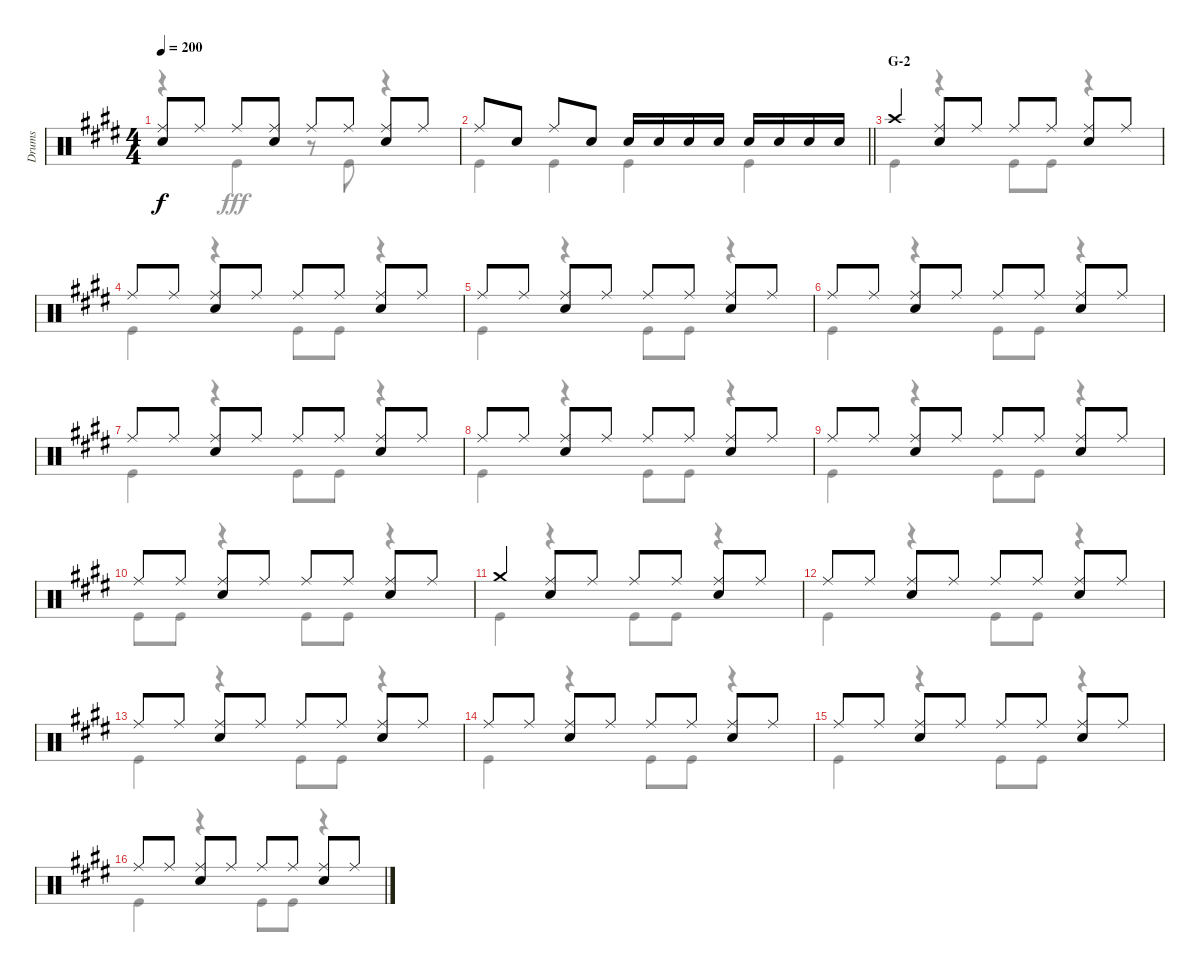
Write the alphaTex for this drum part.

\track ("Drums" "Drums") {instrument percussion}
\staff {score}
\articulation defaults
\voice
\ts (4 4)
\tempo 200
\clef neutral
\ks e
("Ride (middle)" "Snare (hit) 2").8{dy f} "Ride (middle)".8 "Ride (middle)".8 ("Ride (middle)" "Snare (hit) 2").8 "Ride (middle)".8 "Ride (middle)".8 ("Ride (middle)" "Snare (hit) 2").8 "Ride (middle)".8 |
\barLineRight lightlight "Ride (middle)".8 "Snare (hit) 2".8 "Ride (middle)".8 "Snare (hit) 2".8 "Snare (hit) 2".16 "Snare (hit) 2".16 "Snare (hit) 2".16 "Snare (hit) 2".16 "Snare (hit) 2".16 "Snare (hit) 2".16 "Snare (hit) 2".16 "Snare (hit) 2".16
|
\section ("" "G-2")
"Crash high (hit)".4 ("Ride (middle)" "Snare (hit) 2").8 "Ride (middle)".8 "Ride (middle)".8 "Ride (middle)".8 ("Ride (middle)" "Snare (hit) 2").8 "Ride (middle)".8 |
"Ride (middle)".8 "Ride (middle)".8 ("Ride (middle)" "Snare (hit) 2").8 "Ride (middle)".8 "Ride (middle)".8 "Ride (middle)".8 ("Ride (middle)" "Snare (hit) 2").8 "Ride (middle)".8 |
"Ride (middle)".8 "Ride (middle)".8 ("Ride (middle)" "Snare (hit) 2").8 "Ride (middle)".8 "Ride (middle)".8 "Ride (middle)".8 ("Ride (middle)" "Snare (hit) 2").8 "Ride (middle)".8 |
"Ride (middle)".8 "Ride (middle)".8 ("Ride (middle)" "Snare (hit) 2").8 "Ride (middle)".8 "Ride (middle)".8 "Ride (middle)".8 ("Ride (middle)" "Snare (hit) 2").8 "Ride (middle)".8 |
"Ride (middle)".8 "Ride (middle)".8 ("Ride (middle)" "Snare (hit) 2").8 "Ride (middle)".8 "Ride (middle)".8 "Ride (middle)".8 ("Ride (middle)" "Snare (hit) 2").8 "Ride (middle)".8 |
"Ride (middle)".8 "Ride (middle)".8 ("Ride (middle)" "Snare (hit) 2").8 "Ride (middle)".8 "Ride (middle)".8 "Ride (middle)".8 ("Ride (middle)" "Snare (hit) 2").8 "Ride (middle)".8 |
"Ride (middle)".8 "Ride (middle)".8 ("Ride (middle)" "Snare (hit) 2").8 "Ride (middle)".8 "Ride (middle)".8 "Ride (middle)".8 ("Ride (middle)" "Snare (hit) 2").8 "Ride (middle)".8 |
"Ride (middle)".8 "Ride (middle)".8 ("Ride (middle)" "Snare (hit) 2").8 "Ride (middle)".8 "Ride (middle)".8 "Ride (middle)".8 ("Ride (middle)" "Snare (hit) 2").8 "Ride (middle)".8 |
"Crash medium (hit)".4 ("Ride (middle)" "Snare (hit) 2").8 "Ride (middle)".8 "Ride (middle)".8 "Ride (middle)".8 ("Ride (middle)" "Snare (hit) 2").8 "Ride (middle)".8 |
"Ride (middle)".8 "Ride (middle)".8 ("Ride (middle)" "Snare (hit) 2").8 "Ride (middle)".8 "Ride (middle)".8 "Ride (middle)".8 ("Ride (middle)" "Snare (hit) 2").8 "Ride (middle)".8 |
"Ride (middle)".8 "Ride (middle)".8 ("Ride (middle)" "Snare (hit) 2").8 "Ride (middle)".8 "Ride (middle)".8 "Ride (middle)".8 ("Ride (middle)" "Snare (hit) 2").8 "Ride (middle)".8 |
"Ride (middle)".8 "Ride (middle)".8 ("Ride (middle)" "Snare (hit) 2").8 "Ride (middle)".8 "Ride (middle)".8 "Ride (middle)".8 ("Ride (middle)" "Snare (hit) 2").8 "Ride (middle)".8 |
"Ride (middle)".8 "Ride (middle)".8 ("Ride (middle)" "Snare (hit) 2").8 "Ride (middle)".8 "Ride (middle)".8 "Ride (middle)".8 ("Ride (middle)" "Snare (hit) 2").8 "Ride (middle)".8 |
"Ride (middle)".8 "Ride (middle)".8 ("Ride (middle)" "Snare (hit) 2").8 "Ride (middle)".8 "Ride (middle)".8 "Ride (middle)".8 ("Ride (middle)" "Snare (hit) 2").8 "Ride (middle)".8
\voice
\clef neutral
\ottava regular
\simile none
\ks e
r.4{dy fff} "Kick (hit)".4 r.8 "Kick (hit)".8 r.4 |
\barLineRight lightlight "Kick (hit)".4 "Kick (hit)".4 "Kick (hit)".4 "Kick (hit)".4
|
"Kick (hit)".4 r.4 "Kick (hit)".8 "Kick (hit)".8 r.4 |
"Kick (hit)".4 r.4 "Kick (hit)".8 "Kick (hit)".8 r.4 |
"Kick (hit)".4 r.4 "Kick (hit)".8 "Kick (hit)".8 r.4 |
"Kick (hit)".4 r.4 "Kick (hit)".8 "Kick (hit)".8 r.4 |
"Kick (hit)".4 r.4 "Kick (hit)".8 "Kick (hit)".8 r.4 |
"Kick (hit)".4 r.4 "Kick (hit)".8 "Kick (hit)".8 r.4 |
"Kick (hit)".4 r.4 "Kick (hit)".8 "Kick (hit)".8 r.4 |
"Kick (hit)".8 "Kick (hit)".8 r.4 "Kick (hit)".8 "Kick (hit)".8 r.4 |
"Kick (hit)".4 r.4 "Kick (hit)".8 "Kick (hit)".8 r.4 |
"Kick (hit)".4 r.4 "Kick (hit)".8 "Kick (hit)".8 r.4 |
"Kick (hit)".4 r.4 "Kick (hit)".8 "Kick (hit)".8 r.4 |
"Kick (hit)".4 r.4 "Kick (hit)".8 "Kick (hit)".8 r.4 |
"Kick (hit)".4 r.4 "Kick (hit)".8 "Kick (hit)".8 r.4 |
"Kick (hit)".4 r.4 "Kick (hit)".8 "Kick (hit)".8 r.4
